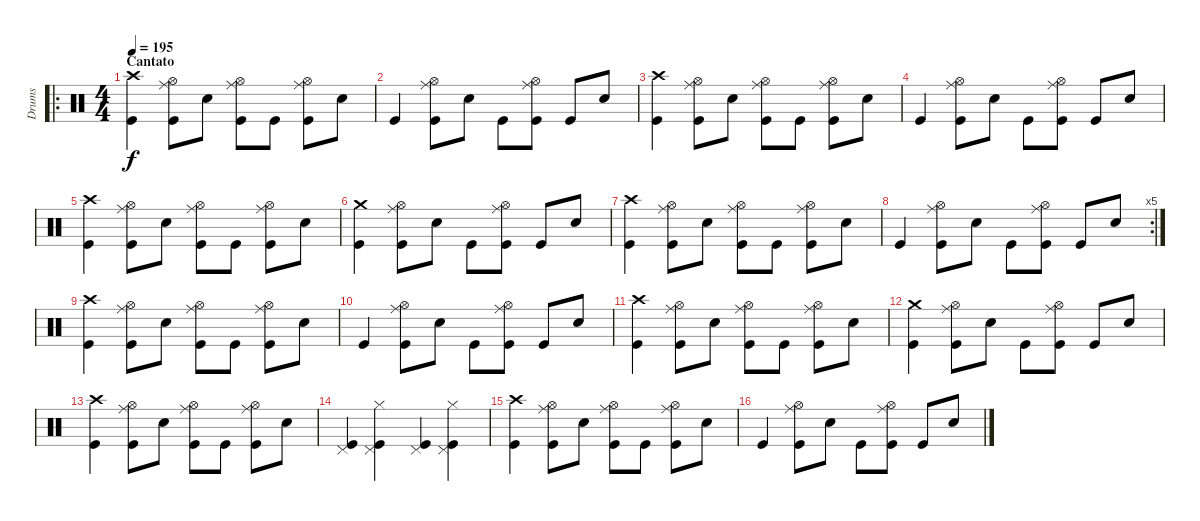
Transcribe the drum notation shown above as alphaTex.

\track ("Drums" "Drums") {instrument percussion}
\staff {score}
\articulation defaults
\ro
\ts (4 4)
\section ("" "Cantato")
\tempo 195
\clef neutral
\ks c
("Crash high (hit)" "Kick (hit)").4{dy f} ("Hi-Hat (open)" "Ride (middle)" "Kick (hit)").8 "Electric Snare (hit)".8 ("Hi-Hat (open)" "Ride (middle)" "Kick (hit)").8 "Kick (hit)".8 ("Hi-Hat (open)" "Ride (middle)" "Kick (hit)").8 "Electric Snare (hit)".8 |
"Kick (hit)".4 ("Hi-Hat (open)" "Ride (middle)" "Kick (hit)").8 "Electric Snare (hit)".8 "Kick (hit)".8 ("Hi-Hat (open)" "Ride (middle)" "Kick (hit)").8 "Kick (hit)".8 "Electric Snare (hit)".8 |
("Crash high (hit)" "Kick (hit)").4 ("Hi-Hat (open)" "Ride (middle)" "Kick (hit)").8 "Electric Snare (hit)".8 ("Hi-Hat (open)" "Ride (middle)" "Kick (hit)").8 "Kick (hit)".8 ("Hi-Hat (open)" "Ride (middle)" "Kick (hit)").8 "Electric Snare (hit)".8 |
"Kick (hit)".4 ("Hi-Hat (open)" "Ride (middle)" "Kick (hit)").8 "Electric Snare (hit)".8 "Kick (hit)".8 ("Hi-Hat (open)" "Ride (middle)" "Kick (hit)").8 "Kick (hit)".8 "Electric Snare (hit)".8 |
("Crash high (hit)" "Kick (hit)").4 ("Hi-Hat (open)" "Ride (middle)" "Kick (hit)").8 "Electric Snare (hit)".8 ("Hi-Hat (open)" "Ride (middle)" "Kick (hit)").8 "Kick (hit)".8 ("Hi-Hat (open)" "Ride (middle)" "Kick (hit)").8 "Electric Snare (hit)".8 |
("Crash medium (hit)" "Kick (hit)").4 ("Hi-Hat (open)" "Ride (middle)" "Kick (hit)").8 "Electric Snare (hit)".8 "Kick (hit)".8 ("Hi-Hat (open)" "Ride (middle)" "Kick (hit)").8 "Kick (hit)".8 "Electric Snare (hit)".8 |
("Crash high (hit)" "Kick (hit)").4 ("Hi-Hat (open)" "Ride (middle)" "Kick (hit)").8 "Electric Snare (hit)".8 ("Hi-Hat (open)" "Ride (middle)" "Kick (hit)").8 "Kick (hit)".8 ("Hi-Hat (open)" "Ride (middle)" "Kick (hit)").8 "Electric Snare (hit)".8 |
\rc 5 "Kick (hit)".4
("Hi-Hat (open)" "Ride (middle)" "Kick (hit)").8 "Electric Snare (hit)".8 "Kick (hit)".8 ("Hi-Hat (open)" "Ride (middle)" "Kick (hit)").8 "Kick (hit)".8 "Electric Snare (hit)".8 |
("Crash high (hit)" "Kick (hit)").4 ("Hi-Hat (open)" "Ride (middle)" "Kick (hit)").8 "Electric Snare (hit)".8 ("Hi-Hat (open)" "Ride (middle)" "Kick (hit)").8 "Kick (hit)".8 ("Hi-Hat (open)" "Ride (middle)" "Kick (hit)").8 "Electric Snare (hit)".8 |
"Kick (hit)".4 ("Hi-Hat (open)" "Ride (middle)" "Kick (hit)").8 "Electric Snare (hit)".8 "Kick (hit)".8 ("Hi-Hat (open)" "Ride (middle)" "Kick (hit)").8 "Kick (hit)".8 "Electric Snare (hit)".8 |
("Crash high (hit)" "Kick (hit)").4 ("Hi-Hat (open)" "Ride (middle)" "Kick (hit)").8 "Electric Snare (hit)".8 ("Hi-Hat (open)" "Ride (middle)" "Kick (hit)").8 "Kick (hit)".8 ("Hi-Hat (open)" "Ride (middle)" "Kick (hit)").8 "Electric Snare (hit)".8 |
("Crash medium (hit)" "Kick (hit)").4 ("Hi-Hat (open)" "Ride (middle)" "Kick (hit)").8 "Electric Snare (hit)".8 "Kick (hit)".8 ("Hi-Hat (open)" "Ride (middle)" "Kick (hit)").8 "Kick (hit)".8 "Electric Snare (hit)".8 |
("Crash high (hit)" "Kick (hit)").4 ("Hi-Hat (open)" "Ride (middle)" "Kick (hit)").8 "Electric Snare (hit)".8 ("Hi-Hat (open)" "Ride (middle)" "Kick (hit)").8 "Kick (hit)".8 ("Hi-Hat (open)" "Ride (middle)" "Kick (hit)").8 "Electric Snare (hit)".8 |
("Pedal Hi-Hat (hit)" "Kick (hit)").4 ("Hi-Hat (closed)" "Pedal Hi-Hat (hit)" "Kick (hit)").4 ("Pedal Hi-Hat (hit)" "Kick (hit)").4 ("Pedal Hi-Hat (hit)" "Hi-Hat (closed)" "Kick (hit)").4 |
("Crash high (hit)" "Kick (hit)").4 ("Hi-Hat (open)" "Ride (middle)" "Kick (hit)").8 "Electric Snare (hit)".8 ("Hi-Hat (open)" "Ride (middle)" "Kick (hit)").8 "Kick (hit)".8 ("Hi-Hat (open)" "Ride (middle)" "Kick (hit)").8 "Electric Snare (hit)".8 |
"Kick (hit)".4 ("Hi-Hat (open)" "Ride (middle)" "Kick (hit)").8 "Electric Snare (hit)".8 "Kick (hit)".8 ("Hi-Hat (open)" "Ride (middle)" "Kick (hit)").8 "Kick (hit)".8 "Electric Snare (hit)".8
